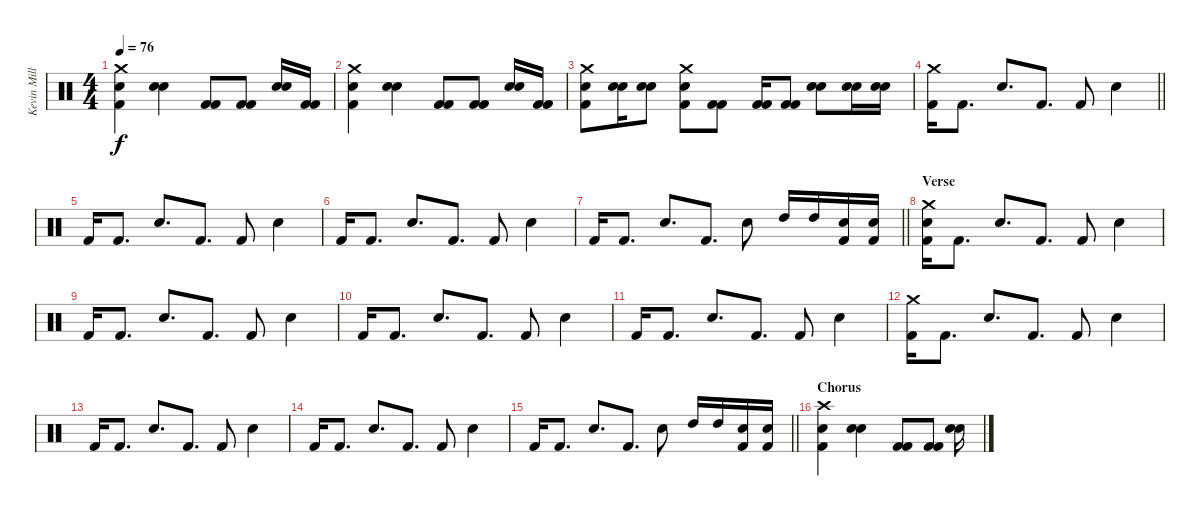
\track ("Kevin Miller (Drums)" "Kevin Mill") {instrument percussion}
\staff {score}
\articulation defaults
\ts (4 4)
\tempo 76
\clef neutral
\ks c
("Crash medium (hit)" "Electric Snare (hit)" "Kick (hit) 2").4{dy f} ("Electric Snare (hit)" "Electric Snare (hit)").4 ("Kick (hit) 2" "Kick (hit) 2").8 ("Kick (hit) 2" "Kick (hit) 2").8 ("Electric Snare (hit)" "Electric Snare (hit)").16 ("Kick (hit) 2" "Kick (hit) 2").16 |
("Crash medium (hit)" "Electric Snare (hit)" "Kick (hit) 2").4 ("Electric Snare (hit)" "Electric Snare (hit)").4 ("Kick (hit) 2" "Kick (hit) 2").8 ("Kick (hit) 2" "Kick (hit) 2").8 ("Electric Snare (hit)" "Electric Snare (hit)").16 ("Kick (hit) 2" "Kick (hit) 2").16 |
("Crash medium (hit)" "Electric Snare (hit)" "Kick (hit) 2").8 ("Electric Snare (hit)" "Electric Snare (hit)").16 ("Electric Snare (hit)" "Electric Snare (hit)").8 ("Crash medium (hit)" "Electric Snare (hit)" "Kick (hit) 2").8 ("Kick (hit) 2" "Kick (hit) 2").8 ("Kick (hit) 2" "Kick (hit) 2").16 ("Kick (hit) 2" "Kick (hit) 2").8 ("Snare (hit) 2" "Snare (hit) 2").8 ("Electric Snare (hit)" "Electric Snare (hit)").16 ("Electric Snare (hit)" "Electric Snare (hit)").16 |
\barLineRight lightlight
("Crash medium (hit)" "Kick (hit) 2").16 "Kick (hit) 2".8{d} "Electric Snare (hit)".8{d} "Kick (hit) 2".8{d} "Kick (hit) 2".8 "Electric Snare (hit)".4 |
"Kick (hit) 2".16 "Kick (hit) 2".8{d} "Electric Snare (hit)".8{d} "Kick (hit) 2".8{d} "Kick (hit) 2".8 "Electric Snare (hit)".4 |
"Kick (hit) 2".16 "Kick (hit) 2".8{d} "Electric Snare (hit)".8{d} "Kick (hit) 2".8{d} "Kick (hit) 2".8 "Electric Snare (hit)".4 |
\barLineRight lightlight "Kick (hit) 2".16 "Kick (hit) 2".8{d} "Electric Snare (hit)".8{d} "Kick (hit) 2".8{d} "Electric Snare (hit)".8 "High Tom (hit)".16 "High Tom (hit)".16
("Electric Snare (hit)" "Kick (hit) 2").16 ("Electric Snare (hit)" "Kick (hit) 2").16 |
\section ("" "Verse")
("Crash medium (hit)" "Electric Snare (hit)" "Kick (hit) 2").16 "Kick (hit) 2".8{d} "Electric Snare (hit)".8{d} "Kick (hit) 2".8{d} "Kick (hit) 2".8 "Electric Snare (hit)".4 |
"Kick (hit) 2".16 "Kick (hit) 2".8{d} "Electric Snare (hit)".8{d} "Kick (hit) 2".8{d} "Kick (hit) 2".8 "Electric Snare (hit)".4 |
"Kick (hit) 2".16 "Kick (hit) 2".8{d} "Electric Snare (hit)".8{d} "Kick (hit) 2".8{d} "Kick (hit) 2".8 "Electric Snare (hit)".4 |
"Kick (hit) 2".16 "Kick (hit) 2".8{d} "Electric Snare (hit)".8{d} "Kick (hit) 2".8{d} "Kick (hit) 2".8 "Electric Snare (hit)".4 |
("Kick (hit) 2" "Crash medium (hit)").16 "Kick (hit) 2".8{d} "Electric Snare (hit)".8{d} "Kick (hit) 2".8{d} "Kick (hit) 2".8 "Electric Snare (hit)".4 |
"Kick (hit) 2".16 "Kick (hit) 2".8{d} "Electric Snare (hit)".8{d} "Kick (hit) 2".8{d} "Kick (hit) 2".8 "Electric Snare (hit)".4 |
"Kick (hit) 2".16 "Kick (hit) 2".8{d} "Electric Snare (hit)".8{d} "Kick (hit) 2".8{d} "Kick (hit) 2".8 "Electric Snare (hit)".4 |
\barLineRight lightlight "Kick (hit) 2".16 "Kick (hit) 2".8{d} "Electric Snare (hit)".8{d} "Kick (hit) 2".8{d} "Electric Snare (hit)".8 "High Tom (hit)".16 "High Tom (hit)".16
("Electric Snare (hit)" "Kick (hit) 2").16 ("Electric Snare (hit)" "Kick (hit) 2").16 |
\section ("" "Chorus")
("Crash high (hit)" "Electric Snare (hit)" "Kick (hit) 2").4 ("Electric Snare (hit)" "Electric Snare (hit)").4 ("Kick (hit) 2" "Kick (hit) 2").8 ("Kick (hit) 2" "Kick (hit) 2").8 ("Electric Snare (hit)" "Electric Snare (hit)").16
